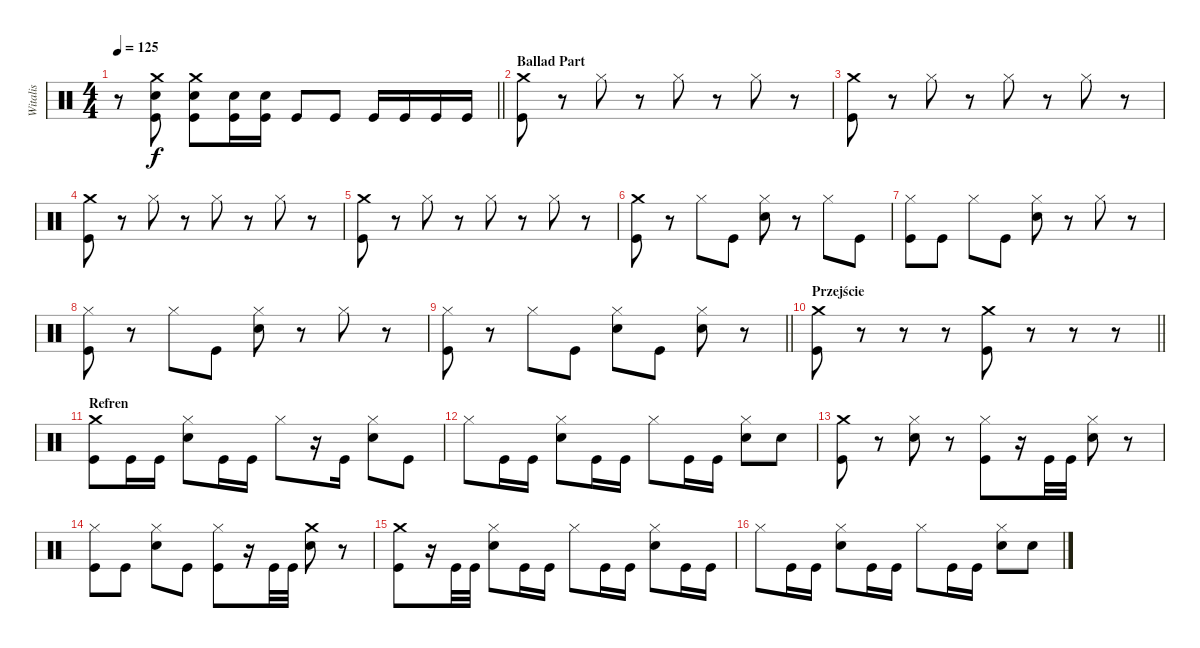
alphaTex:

\track ("Witalis" "Witalis") {instrument percussion}
\staff {score}
\articulation defaults
\ts (4 4)
\tempo 125
\clef neutral
\barLineRight lightlight
\ks c
r.8{dy f} ("Kick (hit)" "Snare (hit) 2" "Crash medium (hit)").8 ("Kick (hit)" "Snare (hit) 2" "Crash medium (hit)").8 ("Kick (hit)" "Snare (hit) 2").16 ("Kick (hit)" "Snare (hit) 2").16 "Kick (hit)".8 "Kick (hit)".8 "Kick (hit)".16 "Kick (hit)".16 "Kick (hit)".16 "Kick (hit)".16 |
\section ("" "Ballad Part")
("Kick (hit)" "Crash medium (hit)").8 r.8 "Hi-Hat (closed)".8 r.8 "Hi-Hat (closed)".8 r.8 "Hi-Hat (closed)".8 r.8 |
("Kick (hit)" "Crash medium (hit)").8 r.8 "Hi-Hat (closed)".8 r.8 "Hi-Hat (closed)".8 r.8 "Hi-Hat (closed)".8 r.8 |
("Kick (hit)" "Crash medium (hit)").8 r.8 "Hi-Hat (closed)".8 r.8 "Hi-Hat (closed)".8 r.8 "Hi-Hat (closed)".8 r.8 |
("Kick (hit)" "Crash medium (hit)").8 r.8 "Hi-Hat (closed)".8 r.8 "Hi-Hat (closed)".8 r.8 "Hi-Hat (closed)".8 r.8 |
("Kick (hit)" "Crash medium (hit)").8 r.8 "Hi-Hat (closed)".8 "Kick (hit)".8 ("Hi-Hat (closed)" "Snare (hit) 2").8 r.8 "Hi-Hat (closed)".8 "Kick (hit)".8 |
("Hi-Hat (closed)" "Kick (hit)").8 "Kick (hit)".8 "Hi-Hat (closed)".8 "Kick (hit)".8 ("Hi-Hat (closed)" "Snare (hit) 2").8 r.8 "Hi-Hat (closed)".8 r.8 |
("Hi-Hat (closed)" "Kick (hit)").8 r.8 "Hi-Hat (closed)".8 "Kick (hit)".8 ("Hi-Hat (closed)" "Snare (hit) 2").8 r.8 "Hi-Hat (closed)".8 r.8 |
\barLineRight lightlight
("Hi-Hat (closed)" "Kick (hit)").8 r.8 "Hi-Hat (closed)".8 "Kick (hit)".8 ("Hi-Hat (closed)" "Snare (hit) 2").8 "Kick (hit)".8 ("Hi-Hat (closed)" "Snare (hit) 2").8 r.8 |
\section ("" "Przejście")
\barLineRight lightlight
("Kick (hit)" "Crash medium (hit)").8 r.8 r.8 r.8 ("Kick (hit)" "Crash medium (hit)").8 r.8 r.8 r.8 |
\section ("" "Refren")
("Kick (hit)" "Crash medium (hit)").8 "Kick (hit)".16 "Kick (hit)".16 ("Hi-Hat (closed)" "Snare (hit) 2").8 "Kick (hit)".16 "Kick (hit)".16 "Hi-Hat (closed)".8 r.16 "Kick (hit)".16 ("Hi-Hat (closed)" "Snare (hit) 2").8 "Kick (hit)".8 |
"Hi-Hat (closed)".8 "Kick (hit)".16 "Kick (hit)".16 ("Hi-Hat (closed)" "Snare (hit) 2").8 "Kick (hit)".16 "Kick (hit)".16 "Hi-Hat (closed)".8 "Kick (hit)".16 "Kick (hit)".16 ("Hi-Hat (closed)" "Snare (hit) 2").8 "Snare (hit) 2".8 |
("Kick (hit)" "Crash medium (hit)").8 r.8 ("Hi-Hat (closed)" "Snare (hit) 2").8 r.8 ("Hi-Hat (closed)" "Kick (hit)").8 r.16 "Kick (hit)".32 "Kick (hit)".32 ("Hi-Hat (closed)" "Snare (hit) 2").8 r.8 |
("Hi-Hat (closed)" "Kick (hit)").8 "Kick (hit)".8 ("Hi-Hat (closed)" "Snare (hit) 2").8 "Kick (hit)".8 ("Hi-Hat (closed)" "Kick (hit)").8 r.16 "Kick (hit)".32 "Kick (hit)".32 ("Snare (hit) 2" "Crash medium (hit)").8 r.8 |
("Kick (hit)" "Crash medium (hit)").8 r.16 "Kick (hit)".32 "Kick (hit)".32 ("Hi-Hat (closed)" "Snare (hit) 2").8 "Kick (hit)".16 "Kick (hit)".16 "Hi-Hat (closed)".8 "Kick (hit)".16 "Kick (hit)".16 ("Hi-Hat (closed)" "Snare (hit) 2").8 "Kick (hit)".16 "Kick (hit)".16 |
"Hi-Hat (closed)".8 "Kick (hit)".16 "Kick (hit)".16 ("Hi-Hat (closed)" "Snare (hit) 2").8 "Kick (hit)".16 "Kick (hit)".16 "Hi-Hat (closed)".8 "Kick (hit)".16 "Kick (hit)".16 ("Hi-Hat (closed)" "Snare (hit) 2").8 "Snare (hit) 2".8
